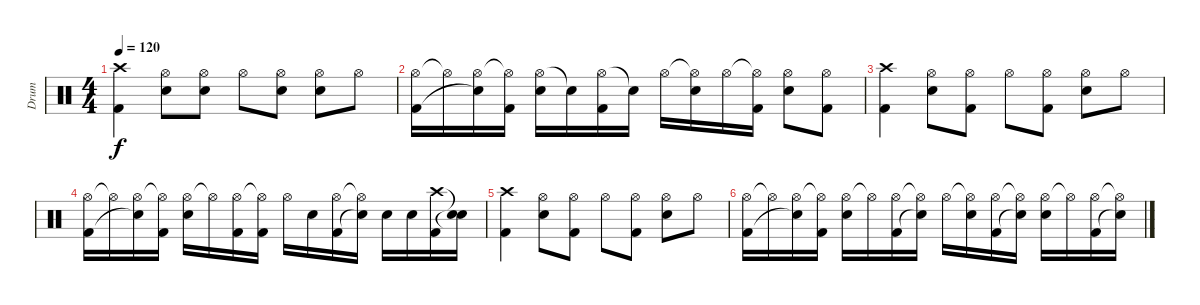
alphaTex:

\track ("Drum" "Drum") {instrument percussion}
\staff {score}
\articulation defaults
\ts (4 4)
\tempo 120
\clef neutral
\ks c
("Crash high (hit)" "Kick (hit) 2").4{dy f volume 7} ("Hi-Hat (open)" "Snare (hit) 2").8 ("Hi-Hat (open)" "Snare (hit) 2").8 "Hi-Hat (open)".8 ("Hi-Hat (open)" "Snare (hit) 2").8 ("Hi-Hat (open)" "Snare (hit) 2").8 "Hi-Hat (open)".8 |
("Hi-Hat (open)" "Kick (hit) 2").16{volume 6} "Hi-Hat (open)"{t}.16 ("Hi-Hat (open)" "Snare (hit)"{t}).16 ("Hi-Hat (open)"{t} "Kick (hit) 2").16 ("Hi-Hat (open)" "Snare (hit) 2").16 "Snare (hit)"{t}.16 ("Hi-Hat (open)" "Kick (hit) 2").16 "Snare (hit)"{t}.16 "Hi-Hat (open)".16 ("Hi-Hat (open)"{t} "Snare (hit) 2").16 "Hi-Hat (open)".16 ("Hi-Hat (open)"{t} "Kick (hit) 2").16 ("Hi-Hat (open)" "Snare (hit) 2").8 ("Hi-Hat (open)" "Kick (hit) 2").8 |
("Crash high (hit)" "Kick (hit) 2").4{volume 5} ("Hi-Hat (open)" "Snare (hit) 2").8 ("Hi-Hat (open)" "Kick (hit) 2").8 "Hi-Hat (open)".8 ("Hi-Hat (open)" "Kick (hit) 2").8 ("Hi-Hat (open)" "Snare (hit) 2").8 "Hi-Hat (open)".8 |
("Hi-Hat (open)" "Kick (hit) 2").16{volume 4} "Hi-Hat (open)"{t}.16 ("Hi-Hat (open)" "Snare (hit)"{t}).16 ("Hi-Hat (open)"{t} "Kick (hit) 2").16 ("Hi-Hat (open)" "Snare (hit) 2").16 "Hi-Hat (open)"{t}.16 ("Hi-Hat (open)" "Kick (hit) 2").16 ("Hi-Hat (open)"{t} "Kick (hit) 2").16 "Hi-Hat (open)".16 "Snare (hit) 2".16 ("Hi-Hat (open)" "Kick (hit) 2").16 ("Hi-Hat (open)"{t} "Snare (hit)"{t}).16 "Snare (hit) 2".16 "Snare (hit) 2".16 ("Crash high (hit)" "Kick (hit) 2").16 ("Snare (hit)"{t} "Snare (hit)"{t}).16 |
("Crash high (hit)" "Kick (hit) 2").4{volume 3} ("Hi-Hat (open)" "Snare (hit) 2").8 ("Hi-Hat (open)" "Kick (hit) 2").8 "Hi-Hat (open)".8 ("Hi-Hat (open)" "Kick (hit) 2").8 ("Hi-Hat (open)" "Snare (hit) 2").8 "Hi-Hat (open)".8 |
("Hi-Hat (open)" "Kick (hit) 2").16{volume 1} "Hi-Hat (open)"{t}.16 ("Hi-Hat (open)" "Snare (hit)"{t}).16 ("Hi-Hat (open)"{t} "Kick (hit) 2").16 ("Hi-Hat (open)" "Snare (hit) 2").16 "Hi-Hat (open)"{t}.16 ("Hi-Hat (open)" "Kick (hit) 2").16 ("Hi-Hat (open)"{t} "Snare (hit)"{t}).16 "Hi-Hat (open)".16 ("Hi-Hat (open)"{t} "Snare (hit) 2").16 ("Hi-Hat (open)" "Kick (hit) 2").16 ("Hi-Hat (open)"{t} "Snare (hit)"{t}).16 ("Hi-Hat (open)" "Snare (hit) 2").16 "Hi-Hat (open)"{t}.16 ("Hi-Hat (open)" "Kick (hit) 2").16 ("Hi-Hat (open)"{t} "Snare (hit)"{t}).16
